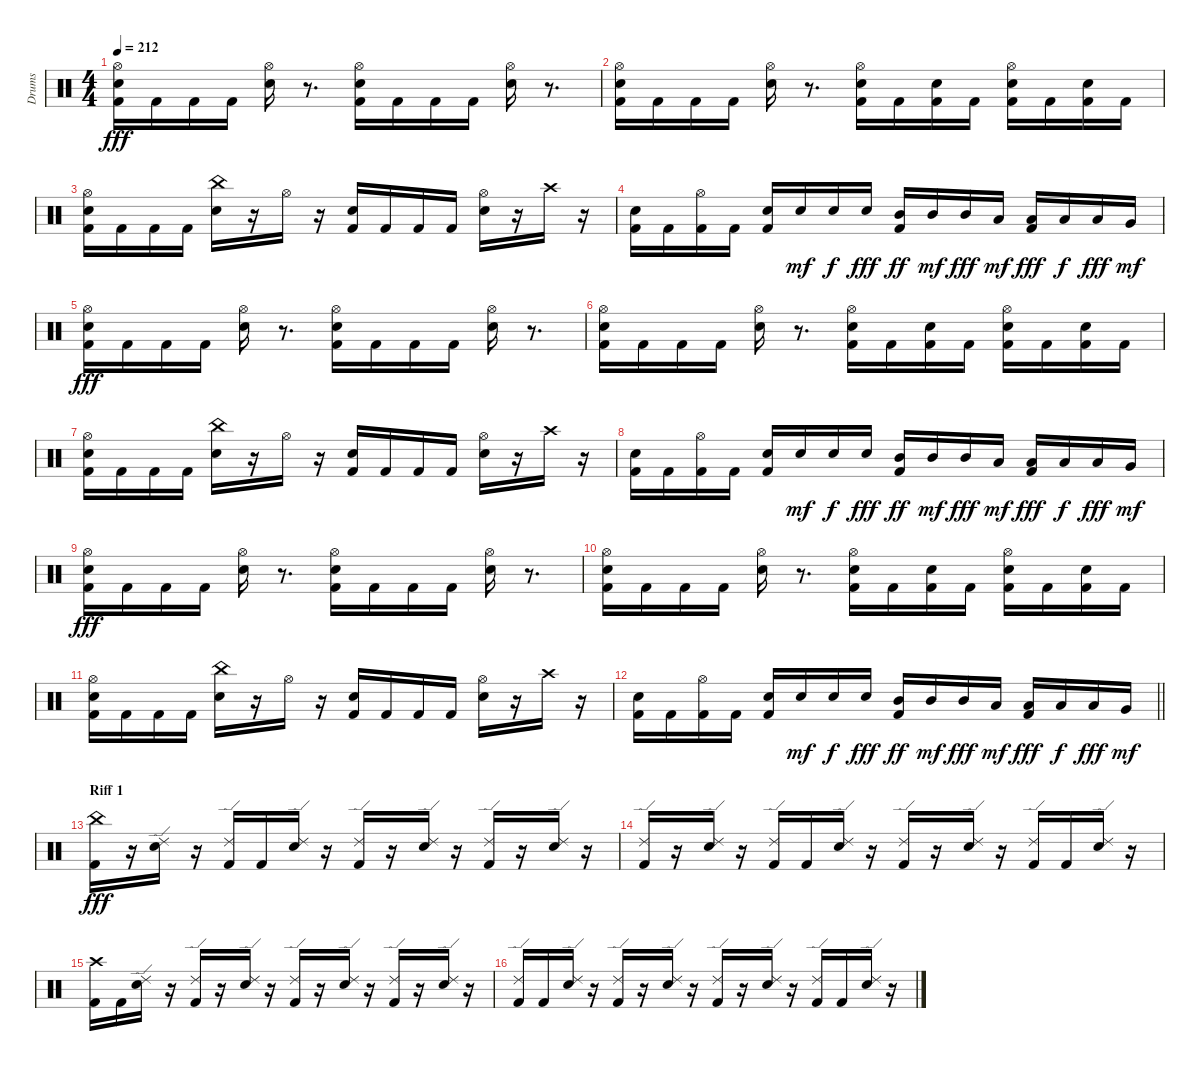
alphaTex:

\track ("Drums" "Drums") {instrument percussion}
\staff {score}
\articulation defaults
\ts (4 4)
\tempo 212
\clef neutral
\ks c
("Kick (hit) 2" "Snare (hit) 2" "Hi-Hat (open)").16{dy fff} "Kick (hit) 2".16 "Kick (hit) 2".16 "Kick (hit) 2".16 ("Snare (hit) 2" "Hi-Hat (open)").16 r.8{d} ("Kick (hit) 2" "Snare (hit) 2" "Hi-Hat (open)").16 "Kick (hit) 2".16 "Kick (hit) 2".16 "Kick (hit) 2".16 ("Snare (hit) 2" "Hi-Hat (open)").16 r.8{d} |
("Kick (hit) 2" "Snare (hit) 2" "Hi-Hat (open)").16 "Kick (hit) 2".16 "Kick (hit) 2".16 "Kick (hit) 2".16 ("Snare (hit) 2" "Hi-Hat (open)").16 r.8{d} ("Kick (hit) 2" "Snare (hit) 2" "Hi-Hat (open)").16 "Kick (hit) 2".16 ("Kick (hit) 2" "Snare (hit) 2").16 "Kick (hit) 2".16 ("Kick (hit) 2" "Snare (hit) 2" "Hi-Hat (open)").16 "Kick (hit) 2".16 ("Kick (hit) 2" "Snare (hit) 2").16 "Kick (hit) 2".16 |
("Kick (hit) 2" "Snare (hit) 2" "Hi-Hat (open)").16 "Kick (hit) 2".16 "Kick (hit) 2".16 "Kick (hit) 2".16 ("Snare (hit) 2" "China (hit)").16 r.16 "Hi-Hat (open)".16 r.16 ("Kick (hit) 2" "Snare (hit) 2").16 "Kick (hit) 2".16 "Kick (hit) 2".16 "Kick (hit) 2".16 ("Snare (hit) 2" "Hi-Hat (open)").16 r.16 "Crash high (hit)".16 r.16 |
("Kick (hit) 2" "Snare (hit) 2").16 "Kick (hit) 2".16 ("Kick (hit) 2" "Hi-Hat (open)").16 "Kick (hit) 2".16 ("Kick (hit) 2" "Snare (hit) 2").16 "Snare (hit) 2".16{dy mf} "Snare (hit) 2".16{dy f} "Snare (hit) 2".16{dy fff} ("Kick (hit) 2" "Mid Tom (hit)").16{dy ff} "Mid Tom (hit)".16{dy mf} "Mid Tom (hit)".16{dy fff} "Low Tom (hit)".16{dy mf} ("Kick (hit) 2" "Low Tom (hit)").16{dy fff} "Low Tom (hit)".16{dy f} "Low Tom (hit)".16{dy fff} "Very Low Tom (hit)".16{dy mf} |
("Kick (hit) 2" "Snare (hit) 2" "Hi-Hat (open)").16{dy fff} "Kick (hit) 2".16 "Kick (hit) 2".16 "Kick (hit) 2".16 ("Snare (hit) 2" "Hi-Hat (open)").16 r.8{d} ("Kick (hit) 2" "Snare (hit) 2" "Hi-Hat (open)").16 "Kick (hit) 2".16 "Kick (hit) 2".16 "Kick (hit) 2".16 ("Snare (hit) 2" "Hi-Hat (open)").16 r.8{d} |
("Kick (hit) 2" "Snare (hit) 2" "Hi-Hat (open)").16 "Kick (hit) 2".16 "Kick (hit) 2".16 "Kick (hit) 2".16 ("Snare (hit) 2" "Hi-Hat (open)").16 r.8{d} ("Kick (hit) 2" "Snare (hit) 2" "Hi-Hat (open)").16 "Kick (hit) 2".16 ("Kick (hit) 2" "Snare (hit) 2").16 "Kick (hit) 2".16 ("Kick (hit) 2" "Snare (hit) 2" "Hi-Hat (open)").16 "Kick (hit) 2".16 ("Kick (hit) 2" "Snare (hit) 2").16 "Kick (hit) 2".16 |
("Kick (hit) 2" "Snare (hit) 2" "Hi-Hat (open)").16 "Kick (hit) 2".16 "Kick (hit) 2".16 "Kick (hit) 2".16 ("Snare (hit) 2" "China (hit)").16 r.16 "Hi-Hat (open)".16 r.16 ("Kick (hit) 2" "Snare (hit) 2").16 "Kick (hit) 2".16 "Kick (hit) 2".16 "Kick (hit) 2".16 ("Snare (hit) 2" "Hi-Hat (open)").16 r.16 "Crash high (hit)".16 r.16 |
("Kick (hit) 2" "Snare (hit) 2").16 "Kick (hit) 2".16 ("Kick (hit) 2" "Hi-Hat (open)").16 "Kick (hit) 2".16 ("Kick (hit) 2" "Snare (hit) 2").16 "Snare (hit) 2".16{dy mf} "Snare (hit) 2".16{dy f} "Snare (hit) 2".16{dy fff} ("Kick (hit) 2" "Mid Tom (hit)").16{dy ff} "Mid Tom (hit)".16{dy mf} "Mid Tom (hit)".16{dy fff} "Low Tom (hit)".16{dy mf} ("Kick (hit) 2" "Low Tom (hit)").16{dy fff} "Low Tom (hit)".16{dy f} "Low Tom (hit)".16{dy fff} "Very Low Tom (hit)".16{dy mf} |
("Kick (hit) 2" "Snare (hit) 2" "Hi-Hat (open)").16{dy fff} "Kick (hit) 2".16 "Kick (hit) 2".16 "Kick (hit) 2".16 ("Snare (hit) 2" "Hi-Hat (open)").16 r.8{d} ("Kick (hit) 2" "Snare (hit) 2" "Hi-Hat (open)").16 "Kick (hit) 2".16 "Kick (hit) 2".16 "Kick (hit) 2".16 ("Snare (hit) 2" "Hi-Hat (open)").16 r.8{d} |
("Kick (hit) 2" "Snare (hit) 2" "Hi-Hat (open)").16 "Kick (hit) 2".16 "Kick (hit) 2".16 "Kick (hit) 2".16 ("Snare (hit) 2" "Hi-Hat (open)").16 r.8{d} ("Kick (hit) 2" "Snare (hit) 2" "Hi-Hat (open)").16 "Kick (hit) 2".16 ("Kick (hit) 2" "Snare (hit) 2").16 "Kick (hit) 2".16 ("Kick (hit) 2" "Snare (hit) 2" "Hi-Hat (open)").16 "Kick (hit) 2".16 ("Kick (hit) 2" "Snare (hit) 2").16 "Kick (hit) 2".16 |
("Kick (hit) 2" "Snare (hit) 2" "Hi-Hat (open)").16 "Kick (hit) 2".16 "Kick (hit) 2".16 "Kick (hit) 2".16 ("Snare (hit) 2" "China (hit)").16 r.16 "Hi-Hat (open)".16 r.16 ("Kick (hit) 2" "Snare (hit) 2").16 "Kick (hit) 2".16 "Kick (hit) 2".16 "Kick (hit) 2".16 ("Snare (hit) 2" "Hi-Hat (open)").16 r.16 "Crash high (hit)".16 r.16 |
\barLineRight lightlight
("Kick (hit) 2" "Snare (hit) 2").16 "Kick (hit) 2".16 ("Kick (hit) 2" "Hi-Hat (open)").16 "Kick (hit) 2".16 ("Kick (hit) 2" "Snare (hit) 2").16 "Snare (hit) 2".16{dy mf} "Snare (hit) 2".16{dy f} "Snare (hit) 2".16{dy fff} ("Kick (hit) 2" "Mid Tom (hit)").16{dy ff} "Mid Tom (hit)".16{dy mf} "Mid Tom (hit)".16{dy fff} "Low Tom (hit)".16{dy mf} ("Kick (hit) 2" "Low Tom (hit)").16{dy fff} "Low Tom (hit)".16{dy f} "Low Tom (hit)".16{dy fff} "Very Low Tom (hit)".16{dy mf} |
\section ("" "Riff 1")
("Kick (hit) 2" "China (hit)").16{dy fff} r.16 ("Snare (hit) 2" "Ride (edge) 2").16 r.16 ("Kick (hit) 2" "Ride (edge) 2").16 "Kick (hit) 2".16 ("Snare (hit) 2" "Ride (edge) 2").16 r.16 ("Kick (hit) 2" "Ride (edge) 2").16 r.16 ("Snare (hit) 2" "Ride (edge) 2").16 r.16 ("Kick (hit) 2" "Ride (edge) 2").16 r.16 ("Snare (hit) 2" "Ride (edge) 2").16 r.16 |
("Kick (hit) 2" "Ride (edge) 2").16 r.16 ("Snare (hit) 2" "Ride (edge) 2").16 r.16 ("Kick (hit) 2" "Ride (edge) 2").16 "Kick (hit) 2".16 ("Snare (hit) 2" "Ride (edge) 2").16 r.16 ("Kick (hit) 2" "Ride (edge) 2").16 r.16 ("Snare (hit) 2" "Ride (edge) 2").16 r.16 ("Kick (hit) 2" "Ride (edge) 2").16 "Kick (hit) 2".16 ("Snare (hit) 2" "Ride (edge) 2").16 r.16 |
("Kick (hit) 2" "Crash high (hit)").16 "Kick (hit) 2".16 ("Snare (hit) 2" "Ride (edge) 2").16 r.16 ("Kick (hit) 2" "Ride (edge) 2").16 r.16 ("Snare (hit) 2" "Ride (edge) 2").16 r.16 ("Kick (hit) 2" "Ride (edge) 2").16 r.16 ("Snare (hit) 2" "Ride (edge) 2").16 r.16 ("Kick (hit) 2" "Ride (edge) 2").16 r.16 ("Snare (hit) 2" "Ride (edge) 2").16 r.16 |
("Kick (hit) 2" "Ride (edge) 2").16 "Kick (hit) 2".16 ("Snare (hit) 2" "Ride (edge) 2").16 r.16 ("Kick (hit) 2" "Ride (edge) 2").16 r.16 ("Snare (hit) 2" "Ride (edge) 2").16 r.16 ("Kick (hit) 2" "Ride (edge) 2").16 r.16 ("Snare (hit) 2" "Ride (edge) 2").16 r.16 ("Kick (hit) 2" "Ride (edge) 2").16 "Kick (hit) 2".16 ("Snare (hit) 2" "Ride (edge) 2").16 r.16
